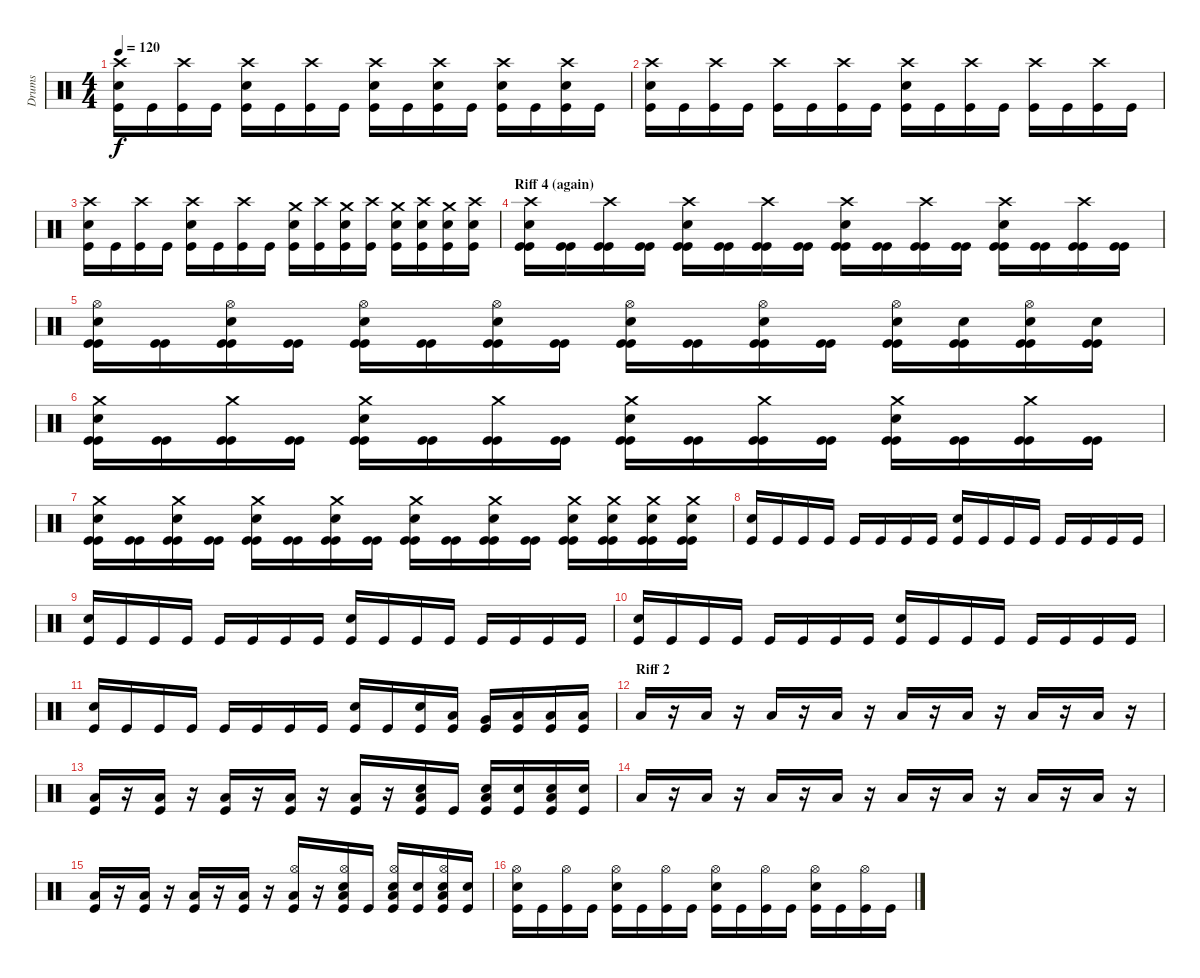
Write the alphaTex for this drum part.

\track ("Drums" "Drums") {instrument percussion}
\staff {score}
\articulation defaults
\ts (4 4)
\tempo 120
\clef neutral
\ks c
("Crash high (hit)" "Snare (hit) 2" "Kick (hit)").16{dy f} "Kick (hit)".16 ("Crash high (hit)" "Kick (hit)").16 "Kick (hit)".16 ("Crash high (hit)" "Snare (hit) 2" "Kick (hit)").16 "Kick (hit)".16 ("Crash high (hit)" "Kick (hit)").16 "Kick (hit)".16 ("Crash high (hit)" "Snare (hit) 2" "Kick (hit)").16 "Kick (hit)".16 ("Crash high (hit)" "Snare (hit) 2" "Kick (hit)").16 "Kick (hit)".16 ("Crash high (hit)" "Snare (hit) 2" "Kick (hit)").16 "Kick (hit)".16 ("Crash high (hit)" "Snare (hit) 2" "Kick (hit)").16 "Kick (hit)".16 |
("Crash high (hit)" "Snare (hit) 2" "Kick (hit)").16 "Kick (hit)".16 ("Crash high (hit)" "Kick (hit)").16 "Kick (hit)".16 ("Crash high (hit)" "Kick (hit)").16 "Kick (hit)".16 ("Crash high (hit)" "Kick (hit)").16 "Kick (hit)".16 ("Crash high (hit)" "Snare (hit) 2" "Kick (hit)").16 "Kick (hit)".16 ("Crash high (hit)" "Kick (hit)").16 "Kick (hit)".16 ("Crash high (hit)" "Kick (hit)").16 "Kick (hit)".16 ("Crash high (hit)" "Kick (hit)").16 "Kick (hit)".16 |
("Crash high (hit)" "Snare (hit) 2" "Kick (hit)").16 "Kick (hit)".16 ("Crash high (hit)" "Kick (hit)").16 "Kick (hit)".16 ("Crash high (hit)" "Snare (hit) 2" "Kick (hit)").16 "Kick (hit)".16 ("Crash high (hit)" "Kick (hit)").16 "Kick (hit)".16 ("Crash medium (hit)" "Snare (hit) 2" "Kick (hit)").16 ("Crash high (hit)" "Kick (hit)").16 ("Crash medium (hit)" "Snare (hit) 2" "Kick (hit)").16 ("Crash high (hit)" "Kick (hit)").16 ("Crash medium (hit)" "Snare (hit) 2" "Kick (hit)").16 ("Crash high (hit)" "Snare (hit) 2" "Kick (hit)").16 ("Crash medium (hit)" "Snare (hit) 2" "Kick (hit)").16 ("Crash high (hit)" "Snare (hit) 2" "Kick (hit)").16 |
\section ("" "Riff 4 (again)")
("Crash high (hit)" "Snare (hit) 2" "Kick (hit)" "Kick (hit)").16 ("Kick (hit)" "Kick (hit)").16 ("Crash high (hit)" "Kick (hit)" "Kick (hit)").16 ("Kick (hit)" "Kick (hit)").16 ("Crash high (hit)" "Snare (hit) 2" "Kick (hit)" "Kick (hit)").16 ("Kick (hit)" "Kick (hit)").16 ("Crash high (hit)" "Kick (hit)" "Kick (hit)").16 ("Kick (hit)" "Kick (hit)").16 ("Crash high (hit)" "Snare (hit) 2" "Kick (hit)" "Kick (hit)").16 ("Kick (hit)" "Kick (hit)").16 ("Crash high (hit)" "Kick (hit)" "Kick (hit)").16 ("Kick (hit)" "Kick (hit)").16 ("Crash high (hit)" "Snare (hit) 2" "Kick (hit)" "Kick (hit)").16 ("Kick (hit)" "Kick (hit)").16 ("Crash high (hit)" "Kick (hit)" "Kick (hit)").16 ("Kick (hit)" "Kick (hit)").16 |
("Hi-Hat (open)" "Snare (hit) 2" "Kick (hit)" "Kick (hit)").16 ("Kick (hit)" "Kick (hit)").16 ("Hi-Hat (open)" "Snare (hit) 2" "Kick (hit)" "Kick (hit)").16 ("Kick (hit)" "Kick (hit)").16 ("Hi-Hat (open)" "Snare (hit) 2" "Kick (hit)" "Kick (hit)").16 ("Kick (hit)" "Kick (hit)").16 ("Hi-Hat (open)" "Snare (hit) 2" "Kick (hit)" "Kick (hit)").16 ("Kick (hit)" "Kick (hit)").16 ("Hi-Hat (open)" "Snare (hit) 2" "Kick (hit)" "Kick (hit)").16 ("Kick (hit)" "Kick (hit)").16 ("Hi-Hat (open)" "Snare (hit) 2" "Kick (hit)" "Kick (hit)").16 ("Kick (hit)" "Kick (hit)").16 ("Hi-Hat (open)" "Snare (hit) 2" "Kick (hit)" "Kick (hit)").16 ("Snare (hit) 2" "Kick (hit)" "Kick (hit)").16 ("Hi-Hat (open)" "Snare (hit) 2" "Kick (hit)" "Kick (hit)").16 ("Snare (hit) 2" "Kick (hit)" "Kick (hit)").16 |
("Crash medium (hit)" "Snare (hit) 2" "Kick (hit)" "Kick (hit)").16 ("Kick (hit)" "Kick (hit)").16 ("Crash medium (hit)" "Kick (hit)" "Kick (hit)").16 ("Kick (hit)" "Kick (hit)").16 ("Crash medium (hit)" "Snare (hit) 2" "Kick (hit)" "Kick (hit)").16 ("Kick (hit)" "Kick (hit)").16 ("Crash medium (hit)" "Kick (hit)" "Kick (hit)").16 ("Kick (hit)" "Kick (hit)").16 ("Crash medium (hit)" "Snare (hit) 2" "Kick (hit)" "Kick (hit)").16 ("Kick (hit)" "Kick (hit)").16 ("Crash medium (hit)" "Kick (hit)" "Kick (hit)").16 ("Kick (hit)" "Kick (hit)").16 ("Crash medium (hit)" "Snare (hit) 2" "Kick (hit)" "Kick (hit)").16 ("Kick (hit)" "Kick (hit)").16 ("Crash medium (hit)" "Kick (hit)" "Kick (hit)").16 ("Kick (hit)" "Kick (hit)").16 |
("Crash medium (hit)" "Snare (hit) 2" "Kick (hit)" "Kick (hit)").16 ("Kick (hit)" "Kick (hit)").16 ("Crash medium (hit)" "Snare (hit) 2" "Kick (hit)" "Kick (hit)").16 ("Kick (hit)" "Kick (hit)").16 ("Crash medium (hit)" "Snare (hit) 2" "Kick (hit)" "Kick (hit)").16 ("Kick (hit)" "Kick (hit)").16 ("Crash medium (hit)" "Snare (hit) 2" "Kick (hit)" "Kick (hit)").16 ("Kick (hit)" "Kick (hit)").16 ("Crash medium (hit)" "Snare (hit) 2" "Kick (hit)" "Kick (hit)").16 ("Kick (hit)" "Kick (hit)").16 ("Crash medium (hit)" "Snare (hit) 2" "Kick (hit)" "Kick (hit)").16 ("Kick (hit)" "Kick (hit)").16 ("Crash medium (hit)" "Snare (hit) 2" "Kick (hit)" "Kick (hit)").16 ("Crash medium (hit)" "Snare (hit) 2" "Kick (hit)" "Kick (hit)").16 ("Crash medium (hit)" "Snare (hit) 2" "Kick (hit)" "Kick (hit)").16 ("Crash medium (hit)" "Snare (hit) 2" "Kick (hit)" "Kick (hit)").16 |
("Snare (hit) 2" "Kick (hit)").16 "Kick (hit)".16 "Kick (hit)".16 "Kick (hit)".16 "Kick (hit)".16 "Kick (hit)".16 "Kick (hit)".16 "Kick (hit)".16 ("Snare (hit) 2" "Kick (hit)").16 "Kick (hit)".16 "Kick (hit)".16 "Kick (hit)".16 "Kick (hit)".16 "Kick (hit)".16 "Kick (hit)".16 "Kick (hit)".16 |
("Snare (hit) 2" "Kick (hit)").16 "Kick (hit)".16 "Kick (hit)".16 "Kick (hit)".16 "Kick (hit)".16 "Kick (hit)".16 "Kick (hit)".16 "Kick (hit)".16 ("Snare (hit) 2" "Kick (hit)").16 "Kick (hit)".16 "Kick (hit)".16 "Kick (hit)".16 "Kick (hit)".16 "Kick (hit)".16 "Kick (hit)".16 "Kick (hit)".16 |
("Snare (hit) 2" "Kick (hit)").16 "Kick (hit)".16 "Kick (hit)".16 "Kick (hit)".16 "Kick (hit)".16 "Kick (hit)".16 "Kick (hit)".16 "Kick (hit)".16 ("Snare (hit) 2" "Kick (hit)").16 "Kick (hit)".16 "Kick (hit)".16 "Kick (hit)".16 "Kick (hit)".16 "Kick (hit)".16 "Kick (hit)".16 "Kick (hit)".16 |
("Snare (hit) 2" "Kick (hit)").16 "Kick (hit)".16 "Kick (hit)".16 "Kick (hit)".16 "Kick (hit)".16 "Kick (hit)".16 "Kick (hit)".16 "Kick (hit)".16 ("Snare (hit) 2" "Kick (hit)").16 "Kick (hit)".16 ("Snare (hit) 2" "Kick (hit)").16 ("Low Tom (hit)" "Kick (hit)").16 ("Very Low Tom (hit)" "Kick (hit)").16 ("Low Floor Tom (hit)" "Kick (hit)").16 ("Low Floor Tom (hit)" "Kick (hit)").16 ("Low Floor Tom (hit)" "Kick (hit)").16 |
\section ("" "Riff 2")
"Low Floor Tom (hit)".16 r.16 "Low Floor Tom (hit)".16 r.16 "Low Floor Tom (hit)".16 r.16 "Low Floor Tom (hit)".16 r.16 "Low Floor Tom (hit)".16 r.16 "Low Floor Tom (hit)".16 r.16 "Low Floor Tom (hit)".16 r.16 "Low Floor Tom (hit)".16 r.16 |
("Low Floor Tom (hit)" "Kick (hit)").16 r.16 ("Low Floor Tom (hit)" "Kick (hit)").16 r.16 ("Low Floor Tom (hit)" "Kick (hit)").16 r.16 ("Low Floor Tom (hit)" "Kick (hit)").16 r.16 ("Low Floor Tom (hit)" "Kick (hit)").16 r.16 ("Snare (hit) 2" "Low Floor Tom (hit)" "Kick (hit)").16 "Kick (hit)".16 ("Snare (hit) 2" "Low Floor Tom (hit)" "Kick (hit)").16 ("Snare (hit) 2" "Kick (hit)").16 ("Snare (hit) 2" "Low Floor Tom (hit)" "Kick (hit)").16 ("Snare (hit) 2" "Kick (hit)").16 |
"Low Floor Tom (hit)".16 r.16 "Low Floor Tom (hit)".16 r.16 "Low Floor Tom (hit)".16 r.16 "Low Floor Tom (hit)".16 r.16 "Low Floor Tom (hit)".16 r.16 "Low Floor Tom (hit)".16 r.16 "Low Floor Tom (hit)".16 r.16 "Low Floor Tom (hit)".16 r.16 |
("Low Floor Tom (hit)" "Kick (hit)").16 r.16 ("Low Floor Tom (hit)" "Kick (hit)").16 r.16 ("Low Floor Tom (hit)" "Kick (hit)").16 r.16 ("Low Floor Tom (hit)" "Kick (hit)").16 r.16 ("Hi-Hat (open)" "Low Floor Tom (hit)" "Kick (hit)").16 r.16 ("Hi-Hat (open)" "Snare (hit) 2" "Low Floor Tom (hit)" "Kick (hit)").16 "Kick (hit)".16 ("Hi-Hat (open)" "Snare (hit) 2" "Low Floor Tom (hit)" "Kick (hit)").16 ("Snare (hit) 2" "Kick (hit)").16 ("Hi-Hat (open)" "Snare (hit) 2" "Low Floor Tom (hit)" "Kick (hit)").16 ("Snare (hit) 2" "Kick (hit)").16 |
("Hi-Hat (open)" "Snare (hit) 2" "Kick (hit)").16 "Kick (hit)".16 ("Hi-Hat (open)" "Kick (hit)").16 "Kick (hit)".16 ("Hi-Hat (open)" "Snare (hit) 2" "Kick (hit)").16 "Kick (hit)".16 ("Hi-Hat (open)" "Kick (hit)").16 "Kick (hit)".16 ("Hi-Hat (open)" "Snare (hit) 2" "Kick (hit)").16 "Kick (hit)".16 ("Hi-Hat (open)" "Kick (hit)").16 "Kick (hit)".16 ("Hi-Hat (open)" "Snare (hit) 2" "Kick (hit)").16 "Kick (hit)".16 ("Hi-Hat (open)" "Kick (hit)").16 "Kick (hit)".16
